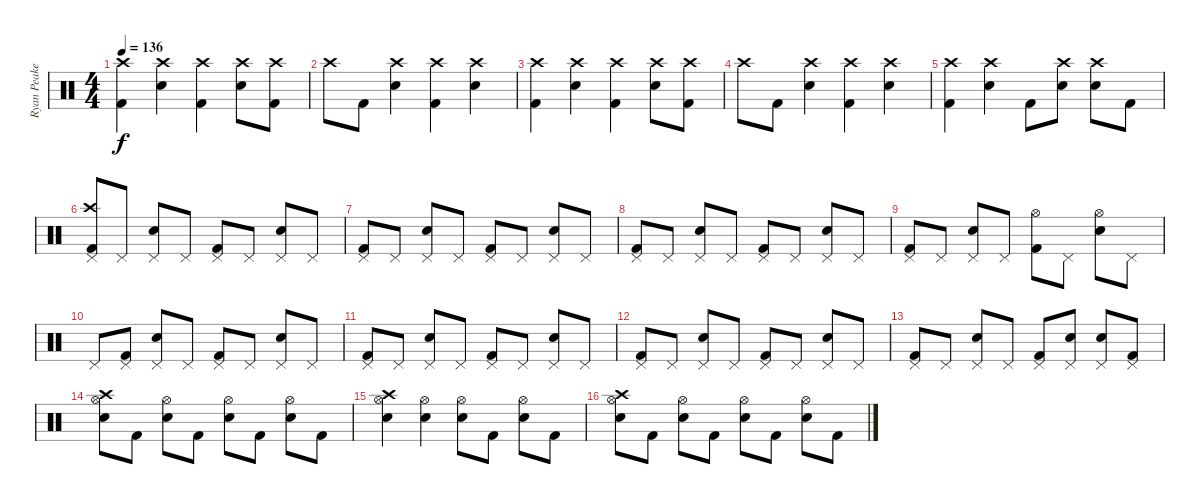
\track ("Ryan Peake" "Ryan Peake") {instrument percussion}
\staff {score}
\articulation defaults
\ts (4 4)
\tempo 136
\clef neutral
\ks c
("Kick (hit) 2" "Crash high (hit)").4{dy f} ("Snare (hit) 2" "Crash high (hit)").4 ("Kick (hit) 2" "Crash high (hit)").4 ("Snare (hit) 2" "Crash high (hit)").8 ("Kick (hit) 2" "Crash high (hit)").8 |
"Crash high (hit)".8 "Kick (hit) 2".8 ("Snare (hit) 2" "Crash high (hit)").4 ("Kick (hit) 2" "Crash high (hit)").4 ("Snare (hit) 2" "Crash high (hit)").4 |
("Kick (hit) 2" "Crash high (hit)").4 ("Snare (hit) 2" "Crash high (hit)").4 ("Kick (hit) 2" "Crash high (hit)").4 ("Snare (hit) 2" "Crash high (hit)").8 ("Kick (hit) 2" "Crash high (hit)").8 |
"Crash high (hit)".8 "Kick (hit) 2".8 ("Snare (hit) 2" "Crash high (hit)").4 ("Kick (hit) 2" "Crash high (hit)").4 ("Snare (hit) 2" "Crash high (hit)").4 |
("Kick (hit) 2" "Crash high (hit)").4 ("Snare (hit) 2" "Crash high (hit)").4 "Kick (hit) 2".8 ("Snare (hit) 2" "Crash high (hit)").8 ("Snare (hit) 2" "Crash high (hit)").8 "Kick (hit) 2".8 |
("Kick (hit) 2" "Pedal Hi-Hat (hit)" "Crash high (hit)").8 "Pedal Hi-Hat (hit)".8 ("Snare (hit) 2" "Pedal Hi-Hat (hit)").8 "Pedal Hi-Hat (hit)".8 ("Kick (hit) 2" "Pedal Hi-Hat (hit)").8 "Pedal Hi-Hat (hit)".8 ("Snare (hit) 2" "Pedal Hi-Hat (hit)").8 "Pedal Hi-Hat (hit)".8 |
("Kick (hit) 2" "Pedal Hi-Hat (hit)").8 "Pedal Hi-Hat (hit)".8 ("Snare (hit) 2" "Pedal Hi-Hat (hit)").8 "Pedal Hi-Hat (hit)".8 ("Kick (hit) 2" "Pedal Hi-Hat (hit)").8 "Pedal Hi-Hat (hit)".8 ("Snare (hit) 2" "Pedal Hi-Hat (hit)").8 "Pedal Hi-Hat (hit)".8 |
("Kick (hit) 2" "Pedal Hi-Hat (hit)").8 "Pedal Hi-Hat (hit)".8 ("Snare (hit) 2" "Pedal Hi-Hat (hit)").8 "Pedal Hi-Hat (hit)".8 ("Kick (hit) 2" "Pedal Hi-Hat (hit)").8 "Pedal Hi-Hat (hit)".8 ("Snare (hit) 2" "Pedal Hi-Hat (hit)").8 "Pedal Hi-Hat (hit)".8 |
("Kick (hit) 2" "Pedal Hi-Hat (hit)").8 "Pedal Hi-Hat (hit)".8 ("Snare (hit) 2" "Pedal Hi-Hat (hit)").8 "Pedal Hi-Hat (hit)".8 ("Kick (hit) 2" "Hi-Hat (open)").8 "Pedal Hi-Hat (hit)".8 ("Snare (hit) 2" "Hi-Hat (open)").8 "Pedal Hi-Hat (hit)".8 |
"Pedal Hi-Hat (hit)".8 ("Kick (hit) 2" "Pedal Hi-Hat (hit)").8 ("Snare (hit) 2" "Pedal Hi-Hat (hit)").8 "Pedal Hi-Hat (hit)".8 ("Kick (hit) 2" "Pedal Hi-Hat (hit)").8 "Pedal Hi-Hat (hit)".8 ("Snare (hit) 2" "Pedal Hi-Hat (hit)").8 "Pedal Hi-Hat (hit)".8 |
("Kick (hit) 2" "Pedal Hi-Hat (hit)").8 "Pedal Hi-Hat (hit)".8 ("Snare (hit) 2" "Pedal Hi-Hat (hit)").8 "Pedal Hi-Hat (hit)".8 ("Kick (hit) 2" "Pedal Hi-Hat (hit)").8 "Pedal Hi-Hat (hit)".8 ("Snare (hit) 2" "Pedal Hi-Hat (hit)").8 "Pedal Hi-Hat (hit)".8 |
("Kick (hit) 2" "Pedal Hi-Hat (hit)").8 "Pedal Hi-Hat (hit)".8 ("Snare (hit) 2" "Pedal Hi-Hat (hit)").8 "Pedal Hi-Hat (hit)".8 ("Kick (hit) 2" "Pedal Hi-Hat (hit)").8 "Pedal Hi-Hat (hit)".8 ("Snare (hit) 2" "Pedal Hi-Hat (hit)").8 "Pedal Hi-Hat (hit)".8 |
("Kick (hit) 2" "Pedal Hi-Hat (hit)").8 "Pedal Hi-Hat (hit)".8 ("Snare (hit) 2" "Pedal Hi-Hat (hit)").8 "Pedal Hi-Hat (hit)".8 ("Kick (hit) 2" "Pedal Hi-Hat (hit)").8 ("Snare (hit) 2" "Pedal Hi-Hat (hit)").8 ("Snare (hit) 2" "Pedal Hi-Hat (hit)").8 ("Kick (hit) 2" "Pedal Hi-Hat (hit)").8 |
("Snare (hit) 2" "Hi-Hat (open)" "Crash high (hit)").8 "Kick (hit) 2".8 ("Snare (hit) 2" "Hi-Hat (open)").8 "Kick (hit) 2".8 ("Snare (hit) 2" "Hi-Hat (open)").8 "Kick (hit) 2".8 ("Snare (hit) 2" "Hi-Hat (open)").8 "Kick (hit) 2".8 |
("Snare (hit) 2" "Hi-Hat (open)" "Crash high (hit)").4 ("Snare (hit) 2" "Hi-Hat (open)").4 ("Snare (hit) 2" "Hi-Hat (open)").8 "Kick (hit) 2".8 ("Snare (hit) 2" "Hi-Hat (open)").8 "Kick (hit) 2".8 |
("Snare (hit) 2" "Hi-Hat (open)" "Crash high (hit)").8 "Kick (hit) 2".8 ("Snare (hit) 2" "Hi-Hat (open)").8 "Kick (hit) 2".8 ("Snare (hit) 2" "Hi-Hat (open)").8 "Kick (hit) 2".8 ("Snare (hit) 2" "Hi-Hat (open)").8 "Kick (hit) 2".8
